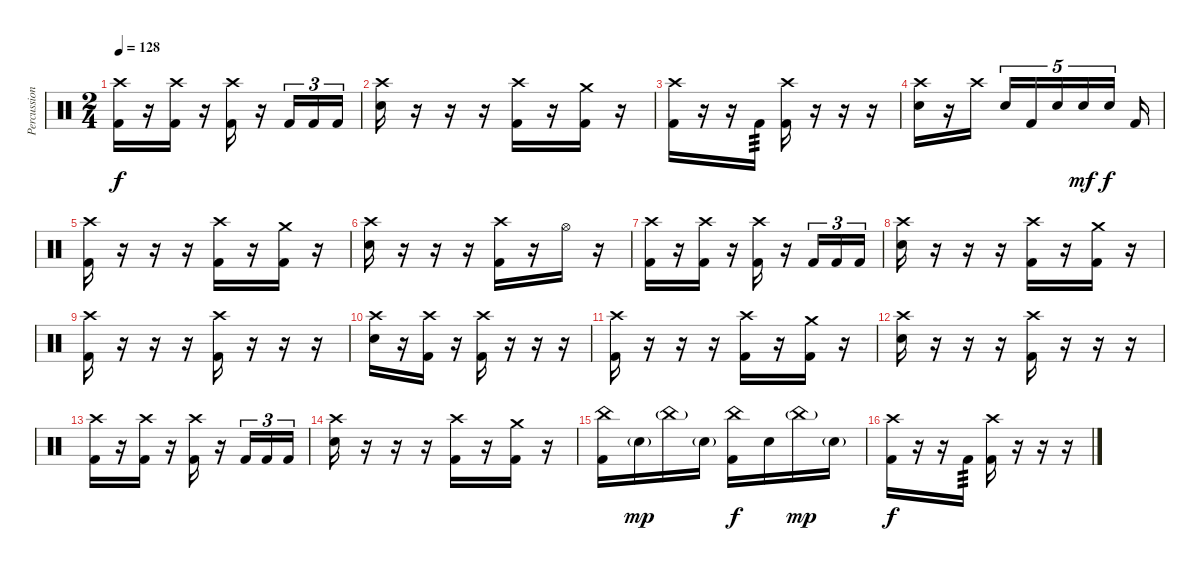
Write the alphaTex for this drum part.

\track ("Percussion" "Percussion") {instrument percussion}
\staff {score}
\articulation defaults
\ts (2 4)
\tempo 128
\clef neutral
\ks c
("Crash high (hit)" "Kick (hit) 2").16{dy f} r.16 ("Crash high (hit)" "Kick (hit) 2").16 r.16 ("Crash high (hit)" "Kick (hit) 2").16 r.16 "Kick (hit) 2".16{tu (3 2)} "Kick (hit) 2".16{tu (3 2)} "Kick (hit) 2".16{tu (3 2)} |
("Crash high (hit)" "Snare (hit) 2").16 r.16 r.16 r.16 ("Crash high (hit)" "Kick (hit) 2").16 r.16 ("Crash medium (hit)" "Kick (hit) 2").16 r.16 |
("Crash high (hit)" "Kick (hit) 2").16 r.16 r.16 "Kick (hit) 2".16{tp 3} ("Crash high (hit)" "Kick (hit) 2").16 r.16 r.16 r.16 |
("Crash high (hit)" "Snare (hit) 2").16 r.16 "Crash high (hit)".16{beam splitsecondary} "Snare (hit) 2".16{tu (5 4)} "Kick (hit) 2".16{tu (5 4)} "Snare (hit) 2".16{tu (5 4)} "Snare (hit) 2".16{tu (5 4) dy mf} "Snare (hit) 2".16{tu (5 4) dy f beam splitsecondary} "Kick (hit) 2".16 |
("Crash high (hit)" "Kick (hit) 2").16 r.16 r.16 r.16 ("Crash high (hit)" "Kick (hit) 2").16 r.16 ("Crash medium (hit)" "Kick (hit) 2").16 r.16 |
("Crash high (hit)" "Snare (hit) 2").16 r.16 r.16 r.16 ("Crash high (hit)" "Kick (hit) 2").16 r.16 "Hi-Hat (open)".16 r.16 |
("Crash high (hit)" "Kick (hit) 2").16 r.16 ("Crash high (hit)" "Kick (hit) 2").16 r.16 ("Crash high (hit)" "Kick (hit) 2").16 r.16 "Kick (hit) 2".16{tu (3 2)} "Kick (hit) 2".16{tu (3 2)} "Kick (hit) 2".16{tu (3 2)} |
("Crash high (hit)" "Snare (hit) 2").16 r.16 r.16 r.16 ("Crash high (hit)" "Kick (hit) 2").16 r.16 ("Crash medium (hit)" "Kick (hit) 2").16 r.16 |
("Crash high (hit)" "Kick (hit) 2").16 r.16 r.16 r.16 ("Crash high (hit)" "Kick (hit) 2").16 r.16 r.16 r.16 |
("Crash high (hit)" "Snare (hit) 2").16 r.16 ("Crash high (hit)" "Kick (hit) 2").16 r.16 ("Crash high (hit)" "Kick (hit) 2").16 r.16 r.16 r.16 |
("Crash high (hit)" "Kick (hit) 2").16 r.16 r.16 r.16 ("Crash high (hit)" "Kick (hit) 2").16 r.16 ("Crash medium (hit)" "Kick (hit) 2").16 r.16 |
("Crash high (hit)" "Snare (hit) 2").16 r.16 r.16 r.16 ("Crash high (hit)" "Kick (hit) 2").16 r.16 r.16 r.16 |
("Crash high (hit)" "Kick (hit) 2").16 r.16 ("Crash high (hit)" "Kick (hit) 2").16 r.16 ("Crash high (hit)" "Kick (hit) 2").16 r.16 "Kick (hit) 2".16{tu (3 2)} "Kick (hit) 2".16{tu (3 2)} "Kick (hit) 2".16{tu (3 2)} |
("Crash high (hit)" "Snare (hit) 2").16 r.16 r.16 r.16 ("Crash high (hit)" "Kick (hit) 2").16 r.16 ("Crash medium (hit)" "Kick (hit) 2").16 r.16 |
("China (hit)" "Kick (hit) 2").16 "Snare (hit) 2"{g}.16{dy mp} "China (hit)"{g}.16 "Snare (hit) 2"{g}.16 ("China (hit)" "Kick (hit) 2").16{dy f} "Snare (hit) 2".16 "China (hit)"{g}.16{dy mp} "Snare (hit) 2"{g}.16 |
("Crash high (hit)" "Kick (hit) 2").16{dy f} r.16 r.16 "Kick (hit) 2".16{tp 3} ("Crash high (hit)" "Kick (hit) 2").16 r.16 r.16 r.16
